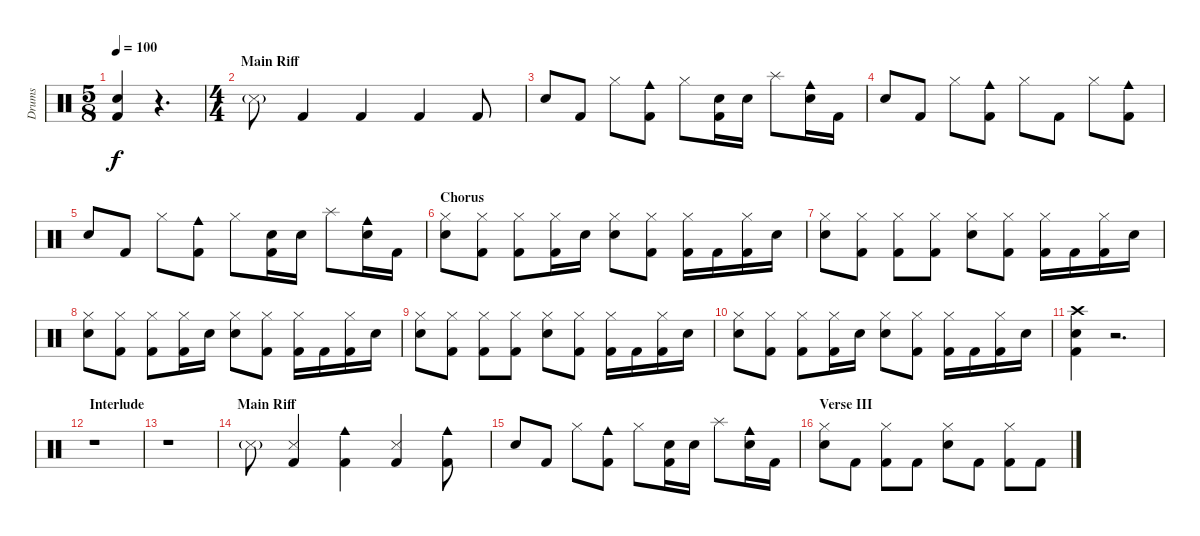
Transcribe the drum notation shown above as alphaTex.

\track ("Drums" "Drums") {instrument percussion}
\staff {score}
\articulation defaults
\ts (5 8)
\tempo 100
\clef neutral
\ks c
("Snare (hit) 2" "Kick (hit) 2").4{dy f} r.4{d} |
\ts (4 4)
\section ("" "Main Riff")
"Snare (side stick) 3"{g}.8 "Kick (hit) 2".4 "Kick (hit) 2".4 "Kick (hit) 2".4 "Kick (hit) 2".8 |
"Snare (hit) 2".8 "Kick (hit) 2".8 "Hi-Hat (closed)".8 ("Cowbell medium (hit)" "Kick (hit) 2").8 "Hi-Hat (closed)".8 ("Snare (hit) 2" "Kick (hit) 2").16 "Snare (hit) 2".16 "Splash (hit)".8 ("Cowbell medium (hit)" "Snare (hit) 2").16 "Kick (hit) 2".16 |
"Snare (hit) 2".8 "Kick (hit) 2".8 "Hi-Hat (closed)".8 ("Cowbell medium (hit)" "Kick (hit) 2").8 "Hi-Hat (closed)".8 "Kick (hit) 2".8 "Hi-Hat (closed)".8 ("Cowbell medium (hit)" "Kick (hit) 2").8 |
"Snare (hit) 2".8 "Kick (hit) 2".8 "Hi-Hat (closed)".8 ("Cowbell medium (hit)" "Kick (hit) 2").8 "Hi-Hat (closed)".8 ("Snare (hit) 2" "Kick (hit) 2").16 "Snare (hit) 2".16 "Splash (hit)".8 ("Cowbell medium (hit)" "Snare (hit) 2").16 "Kick (hit) 2".16 |
\section ("" "Chorus")
("Hi-Hat (closed)" "Snare (hit) 2").8 ("Hi-Hat (closed)" "Kick (hit) 2").8 ("Hi-Hat (closed)" "Kick (hit) 2").8 ("Hi-Hat (closed)" "Kick (hit) 2").16 "Snare (hit) 2".16 ("Hi-Hat (closed)" "Snare (hit) 2").8 ("Hi-Hat (closed)" "Kick (hit) 2").8 ("Hi-Hat (closed)" "Kick (hit) 2").16 "Kick (hit) 2".16 ("Hi-Hat (closed)" "Kick (hit) 2").16 "Snare (hit) 2".16 |
("Hi-Hat (closed)" "Snare (hit) 2").8 ("Hi-Hat (closed)" "Kick (hit) 2").8 ("Hi-Hat (closed)" "Kick (hit) 2").8 ("Hi-Hat (closed)" "Kick (hit) 2").8 ("Hi-Hat (closed)" "Snare (hit) 2").8 ("Hi-Hat (closed)" "Kick (hit) 2").8 ("Hi-Hat (closed)" "Kick (hit) 2").16 "Kick (hit) 2".16 ("Hi-Hat (closed)" "Kick (hit) 2").16 "Snare (hit) 2".16 |
("Hi-Hat (closed)" "Snare (hit) 2").8 ("Hi-Hat (closed)" "Kick (hit) 2").8 ("Hi-Hat (closed)" "Kick (hit) 2").8 ("Hi-Hat (closed)" "Kick (hit) 2").16 "Snare (hit) 2".16 ("Hi-Hat (closed)" "Snare (hit) 2").8 ("Hi-Hat (closed)" "Kick (hit) 2").8 ("Hi-Hat (closed)" "Kick (hit) 2").16 "Kick (hit) 2".16 ("Hi-Hat (closed)" "Kick (hit) 2").16 "Snare (hit) 2".16 |
("Hi-Hat (closed)" "Snare (hit) 2").8 ("Hi-Hat (closed)" "Kick (hit) 2").8 ("Hi-Hat (closed)" "Kick (hit) 2").8 ("Hi-Hat (closed)" "Kick (hit) 2").8 ("Hi-Hat (closed)" "Snare (hit) 2").8 ("Hi-Hat (closed)" "Kick (hit) 2").8 ("Hi-Hat (closed)" "Kick (hit) 2").16 "Kick (hit) 2".16 ("Hi-Hat (closed)" "Kick (hit) 2").16 "Snare (hit) 2".16 |
("Hi-Hat (closed)" "Snare (hit) 2").8 ("Hi-Hat (closed)" "Kick (hit) 2").8 ("Hi-Hat (closed)" "Kick (hit) 2").8 ("Hi-Hat (closed)" "Kick (hit) 2").16 "Snare (hit) 2".16 ("Hi-Hat (closed)" "Snare (hit) 2").8 ("Hi-Hat (closed)" "Kick (hit) 2").8 ("Hi-Hat (closed)" "Kick (hit) 2").16 "Kick (hit) 2".16 ("Hi-Hat (closed)" "Kick (hit) 2").16 "Snare (hit) 2".16 |
("Crash high (hit)" "Snare (hit) 2" "Kick (hit) 2").4 r.2{d} |
\section ("" "Interlude")
r.1 |
r.1 |
\section ("" "Main Riff")
"Snare (side stick) 3"{g}.8 ("Snare (side stick) 3" "Kick (hit) 2").4 ("Cowbell medium (hit)" "Kick (hit) 2").4 ("Snare (side stick) 3" "Kick (hit) 2").4 ("Cowbell medium (hit)" "Kick (hit) 2").8 |
"Snare (hit) 2".8 "Kick (hit) 2".8 "Hi-Hat (closed)".8 ("Cowbell medium (hit)" "Kick (hit) 2").8 "Hi-Hat (closed)".8 ("Snare (hit) 2" "Kick (hit) 2").16 "Snare (hit) 2".16 "Splash (hit)".8 ("Cowbell medium (hit)" "Snare (hit) 2").16 "Kick (hit) 2".16 |
\section ("" "Verse III")
("Hi-Hat (closed)" "Snare (hit) 2").8 "Kick (hit) 2".8 ("Hi-Hat (closed)" "Kick (hit) 2").8 "Kick (hit) 2".8 ("Hi-Hat (closed)" "Snare (hit) 2").8 "Kick (hit) 2".8 ("Hi-Hat (closed)" "Kick (hit) 2").8 "Kick (hit) 2".8
